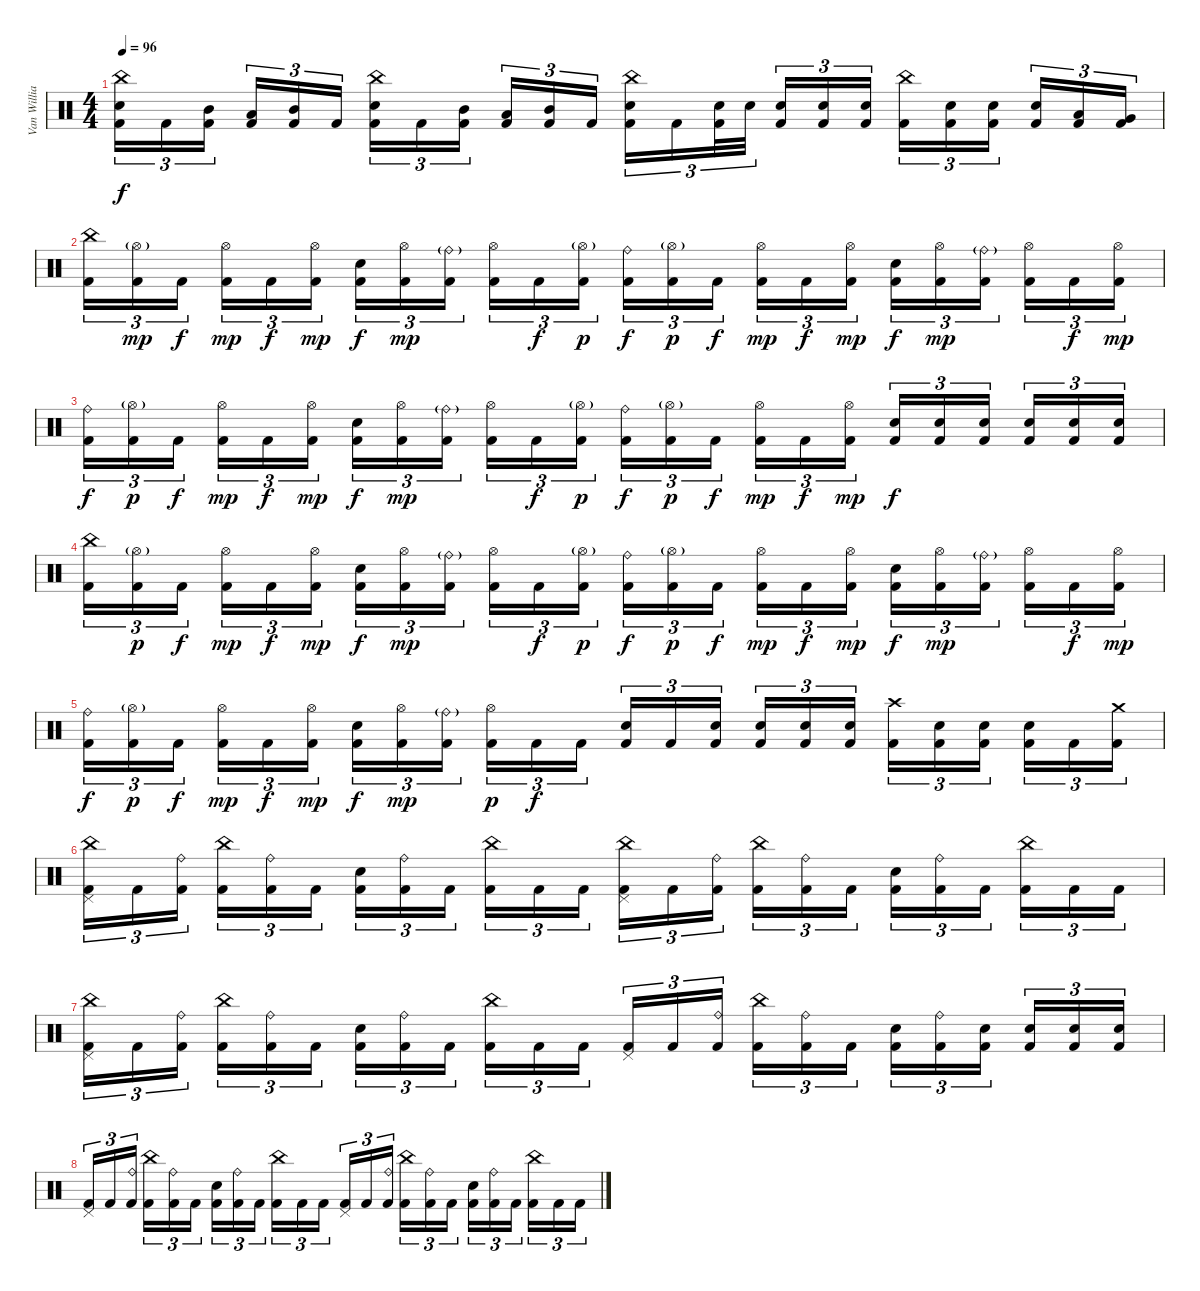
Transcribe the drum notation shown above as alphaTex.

\track ("Van Williams" "Van Willia") {instrument percussion}
\staff {score}
\articulation defaults
\ts (4 4)
\tempo 96
\clef neutral
\ks c
("China (hit)" "Electric Snare (hit)" "Kick (hit) 2").16{tu (3 2) dy f} "Kick (hit) 2".16{tu (3 2)} ("Mid Tom (hit)" "Kick (hit) 2").16{tu (3 2)} ("Low Tom (hit)" "Kick (hit) 2").16{tu (3 2)} ("Mid Tom (hit)" "Kick (hit) 2").16{tu (3 2)} "Kick (hit) 2".16{tu (3 2)} ("China (hit)" "Electric Snare (hit)" "Kick (hit) 2").16{tu (3 2)} "Kick (hit) 2".16{tu (3 2)} ("Mid Tom (hit)" "Kick (hit) 2").16{tu (3 2)} ("Low Tom (hit)" "Kick (hit) 2").16{tu (3 2)} ("Mid Tom (hit)" "Kick (hit) 2").16{tu (3 2)} "Kick (hit) 2".16{tu (3 2)} ("China (hit)" "Electric Snare (hit)" "Kick (hit) 2").16{tu (3 2)} "Kick (hit) 2".16{tu (3 2)} ("Electric Snare (hit)" "Kick (hit) 2").32{tu (3 2)} "Electric Snare (hit)".32{tu (3 2)} ("Electric Snare (hit)" "Kick (hit) 2").16{tu (3 2)} ("Electric Snare (hit)" "Kick (hit) 2").16{tu (3 2)} ("Electric Snare (hit)" "Kick (hit) 2").16{tu (3 2)} ("China (hit)" "Kick (hit) 2").16{tu (3 2)} ("Electric Snare (hit)" "Kick (hit) 2").16{tu (3 2)} ("Electric Snare (hit)" "Kick (hit) 2").16{tu (3 2)} ("Electric Snare (hit)" "Kick (hit) 2").16{tu (3 2)} ("Low Tom (hit)" "Kick (hit) 2").16{tu (3 2)} ("Very Low Tom (hit)" "Kick (hit) 2").16{tu (3 2)} |
("China (hit)" "Kick (hit) 2").16{tu (3 2)} ("Hi-Hat (open)"{g} "Kick (hit) 2").16{tu (3 2) dy mp} "Kick (hit) 2".16{tu (3 2) dy f} ("Hi-Hat (open)" "Kick (hit) 2").16{tu (3 2) dy mp} "Kick (hit) 2".16{tu (3 2) dy f} ("Hi-Hat (open)" "Kick (hit) 2").16{tu (3 2) dy mp} ("Electric Snare (hit)" "Kick (hit) 2").16{tu (3 2) dy f} ("Hi-Hat (open)" "Kick (hit) 2").16{tu (3 2) dy mp} ("Ride (bell)"{g} "Kick (hit) 2").16{tu (3 2)} ("Hi-Hat (open)" "Kick (hit) 2").16{tu (3 2)} "Kick (hit) 2".16{tu (3 2) dy f} ("Hi-Hat (open)"{g} "Kick (hit) 2").16{tu (3 2) dy p} ("Ride (bell)" "Kick (hit) 2").16{tu (3 2) dy f} ("Hi-Hat (open)"{g} "Kick (hit) 2").16{tu (3 2) dy p} "Kick (hit) 2".16{tu (3 2) dy f} ("Hi-Hat (open)" "Kick (hit) 2").16{tu (3 2) dy mp} "Kick (hit) 2".16{tu (3 2) dy f} ("Hi-Hat (open)" "Kick (hit) 2").16{tu (3 2) dy mp} ("Electric Snare (hit)" "Kick (hit) 2").16{tu (3 2) dy f} ("Hi-Hat (open)" "Kick (hit) 2").16{tu (3 2) dy mp} ("Ride (bell)"{g} "Kick (hit) 2").16{tu (3 2)} ("Hi-Hat (open)" "Kick (hit) 2").16{tu (3 2)} "Kick (hit) 2".16{tu (3 2) dy f} ("Hi-Hat (open)" "Kick (hit) 2").16{tu (3 2) dy mp} |
\section ("" "")
("Ride (bell)" "Kick (hit) 2").16{tu (3 2) dy f} ("Hi-Hat (open)"{g} "Kick (hit) 2").16{tu (3 2) dy p} "Kick (hit) 2".16{tu (3 2) dy f} ("Hi-Hat (open)" "Kick (hit) 2").16{tu (3 2) dy mp} "Kick (hit) 2".16{tu (3 2) dy f} ("Hi-Hat (open)" "Kick (hit) 2").16{tu (3 2) dy mp} ("Electric Snare (hit)" "Kick (hit) 2").16{tu (3 2) dy f} ("Hi-Hat (open)" "Kick (hit) 2").16{tu (3 2) dy mp} ("Ride (bell)"{g} "Kick (hit) 2").16{tu (3 2)} ("Hi-Hat (open)" "Kick (hit) 2").16{tu (3 2)} "Kick (hit) 2".16{tu (3 2) dy f} ("Hi-Hat (open)"{g} "Kick (hit) 2").16{tu (3 2) dy p} ("Ride (bell)" "Kick (hit) 2").16{tu (3 2) dy f} ("Hi-Hat (open)"{g} "Kick (hit) 2").16{tu (3 2) dy p} "Kick (hit) 2".16{tu (3 2) dy f} ("Hi-Hat (open)" "Kick (hit) 2").16{tu (3 2) dy mp} "Kick (hit) 2".16{tu (3 2) dy f} ("Hi-Hat (open)" "Kick (hit) 2").16{tu (3 2) dy mp} ("Electric Snare (hit)" "Kick (hit) 2").16{tu (3 2) dy f} ("Electric Snare (hit)" "Kick (hit) 2").16{tu (3 2)} ("Electric Snare (hit)" "Kick (hit) 2").16{tu (3 2)} ("Electric Snare (hit)" "Kick (hit) 2").16{tu (3 2)} ("Electric Snare (hit)" "Kick (hit) 2").16{tu (3 2)} ("Electric Snare (hit)" "Kick (hit) 2").16{tu (3 2)} |
("China (hit)" "Kick (hit) 2").16{tu (3 2)} ("Hi-Hat (open)"{g} "Kick (hit) 2").16{tu (3 2) dy p} "Kick (hit) 2".16{tu (3 2) dy f} ("Hi-Hat (open)" "Kick (hit) 2").16{tu (3 2) dy mp} "Kick (hit) 2".16{tu (3 2) dy f} ("Hi-Hat (open)" "Kick (hit) 2").16{tu (3 2) dy mp} ("Electric Snare (hit)" "Kick (hit) 2").16{tu (3 2) dy f} ("Hi-Hat (open)" "Kick (hit) 2").16{tu (3 2) dy mp} ("Ride (bell)"{g} "Kick (hit) 2").16{tu (3 2)} ("Hi-Hat (open)" "Kick (hit) 2").16{tu (3 2)} "Kick (hit) 2".16{tu (3 2) dy f} ("Hi-Hat (open)"{g} "Kick (hit) 2").16{tu (3 2) dy p} ("Ride (bell)" "Kick (hit) 2").16{tu (3 2) dy f} ("Hi-Hat (open)"{g} "Kick (hit) 2").16{tu (3 2) dy p} "Kick (hit) 2".16{tu (3 2) dy f} ("Hi-Hat (open)" "Kick (hit) 2").16{tu (3 2) dy mp} "Kick (hit) 2".16{tu (3 2) dy f} ("Hi-Hat (open)" "Kick (hit) 2").16{tu (3 2) dy mp} ("Electric Snare (hit)" "Kick (hit) 2").16{tu (3 2) dy f} ("Hi-Hat (open)" "Kick (hit) 2").16{tu (3 2) dy mp} ("Ride (bell)"{g} "Kick (hit) 2").16{tu (3 2)} ("Hi-Hat (open)" "Kick (hit) 2").16{tu (3 2)} "Kick (hit) 2".16{tu (3 2) dy f} ("Hi-Hat (open)" "Kick (hit) 2").16{tu (3 2) dy mp} |
("Ride (bell)" "Kick (hit) 2").16{tu (3 2) dy f} ("Hi-Hat (open)"{g} "Kick (hit) 2").16{tu (3 2) dy p} "Kick (hit) 2".16{tu (3 2) dy f} ("Hi-Hat (open)" "Kick (hit) 2").16{tu (3 2) dy mp} "Kick (hit) 2".16{tu (3 2) dy f} ("Hi-Hat (open)" "Kick (hit) 2").16{tu (3 2) dy mp} ("Electric Snare (hit)" "Kick (hit) 2").16{tu (3 2) dy f} ("Hi-Hat (open)" "Kick (hit) 2").16{tu (3 2) dy mp} ("Ride (bell)"{g} "Kick (hit) 2").16{tu (3 2)} ("Hi-Hat (open)" "Kick (hit) 2").16{tu (3 2) dy p} "Kick (hit) 2".16{tu (3 2) dy f} "Kick (hit) 2".16{tu (3 2)} ("Electric Snare (hit)" "Kick (hit) 2").16{tu (3 2)} "Kick (hit) 2".16{tu (3 2)} ("Electric Snare (hit)" "Kick (hit) 2").16{tu (3 2)} ("Electric Snare (hit)" "Kick (hit) 2").16{tu (3 2)} ("Electric Snare (hit)" "Kick (hit) 2").16{tu (3 2)} ("Electric Snare (hit)" "Kick (hit) 2").16{tu (3 2)} ("Crash high (hit)" "Kick (hit) 2").16{tu (3 2)} ("Electric Snare (hit)" "Kick (hit) 2").16{tu (3 2)} ("Electric Snare (hit)" "Kick (hit) 2").16{tu (3 2)} ("Electric Snare (hit)" "Kick (hit) 2").16{tu (3 2)} "Kick (hit) 2".16{tu (3 2)} ("Crash medium (hit)" "Kick (hit) 2").16{tu (3 2)} |
("China (hit)" "Pedal Hi-Hat (hit)" "Kick (hit) 2").16{tu (3 2)} "Kick (hit) 2".16{tu (3 2)} ("Ride (bell)" "Kick (hit) 2").16{tu (3 2)} ("China (hit)" "Kick (hit) 2").16{tu (3 2)} ("Ride (bell)" "Kick (hit) 2").16{tu (3 2)} "Kick (hit) 2".16{tu (3 2)} ("Electric Snare (hit)" "Kick (hit) 2").16{tu (3 2)} ("Ride (bell)" "Kick (hit) 2").16{tu (3 2)} "Kick (hit) 2".16{tu (3 2)} ("China (hit)" "Kick (hit) 2").16{tu (3 2)} "Kick (hit) 2".16{tu (3 2)} "Kick (hit) 2".16{tu (3 2)} ("China (hit)" "Pedal Hi-Hat (hit)" "Kick (hit) 2").16{tu (3 2)} "Kick (hit) 2".16{tu (3 2)} ("Ride (bell)" "Kick (hit) 2").16{tu (3 2)} ("China (hit)" "Kick (hit) 2").16{tu (3 2)} ("Ride (bell)" "Kick (hit) 2").16{tu (3 2)} "Kick (hit) 2".16{tu (3 2)} ("Electric Snare (hit)" "Kick (hit) 2").16{tu (3 2)} ("Ride (bell)" "Kick (hit) 2").16{tu (3 2)} "Kick (hit) 2".16{tu (3 2)} ("China (hit)" "Kick (hit) 2").16{tu (3 2)} "Kick (hit) 2".16{tu (3 2)} "Kick (hit) 2".16{tu (3 2)} |
("China (hit)" "Pedal Hi-Hat (hit)" "Kick (hit) 2").16{tu (3 2)} "Kick (hit) 2".16{tu (3 2)} ("Ride (bell)" "Kick (hit) 2").16{tu (3 2)} ("China (hit)" "Kick (hit) 2").16{tu (3 2)} ("Ride (bell)" "Kick (hit) 2").16{tu (3 2)} "Kick (hit) 2".16{tu (3 2)} ("Electric Snare (hit)" "Kick (hit) 2").16{tu (3 2)} ("Ride (bell)" "Kick (hit) 2").16{tu (3 2)} "Kick (hit) 2".16{tu (3 2)} ("China (hit)" "Kick (hit) 2").16{tu (3 2)} "Kick (hit) 2".16{tu (3 2)} "Kick (hit) 2".16{tu (3 2)} ("Pedal Hi-Hat (hit)" "Kick (hit) 2").16{tu (3 2)} "Kick (hit) 2".16{tu (3 2)} ("Ride (bell)" "Kick (hit) 2").16{tu (3 2)} ("China (hit)" "Kick (hit) 2").16{tu (3 2)} ("Ride (bell)" "Kick (hit) 2").16{tu (3 2)} "Kick (hit) 2".16{tu (3 2)} ("Electric Snare (hit)" "Kick (hit) 2").16{tu (3 2)} ("Ride (bell)" "Kick (hit) 2").16{tu (3 2)} ("Electric Snare (hit)" "Kick (hit) 2").16{tu (3 2)} ("Electric Snare (hit)" "Kick (hit) 2").16{tu (3 2)} ("Electric Snare (hit)" "Kick (hit) 2").16{tu (3 2)} ("Electric Snare (hit)" "Kick (hit) 2").16{tu (3 2)} |
("Pedal Hi-Hat (hit)" "Kick (hit) 2").16{tu (3 2)} "Kick (hit) 2".16{tu (3 2)} ("Ride (bell)" "Kick (hit) 2").16{tu (3 2)} ("China (hit)" "Kick (hit) 2").16{tu (3 2)} ("Ride (bell)" "Kick (hit) 2").16{tu (3 2)} "Kick (hit) 2".16{tu (3 2)} ("Electric Snare (hit)" "Kick (hit) 2").16{tu (3 2)} ("Ride (bell)" "Kick (hit) 2").16{tu (3 2)} "Kick (hit) 2".16{tu (3 2)} ("China (hit)" "Kick (hit) 2").16{tu (3 2)} "Kick (hit) 2".16{tu (3 2)} "Kick (hit) 2".16{tu (3 2)} ("Pedal Hi-Hat (hit)" "Kick (hit) 2").16{tu (3 2)} "Kick (hit) 2".16{tu (3 2)} ("Ride (bell)" "Kick (hit) 2").16{tu (3 2)} ("China (hit)" "Kick (hit) 2").16{tu (3 2)} ("Ride (bell)" "Kick (hit) 2").16{tu (3 2)} "Kick (hit) 2".16{tu (3 2)} ("Electric Snare (hit)" "Kick (hit) 2").16{tu (3 2)} ("Ride (bell)" "Kick (hit) 2").16{tu (3 2)} "Kick (hit) 2".16{tu (3 2)} ("China (hit)" "Kick (hit) 2").16{tu (3 2)} "Kick (hit) 2".16{tu (3 2)} "Kick (hit) 2".16{tu (3 2)}
